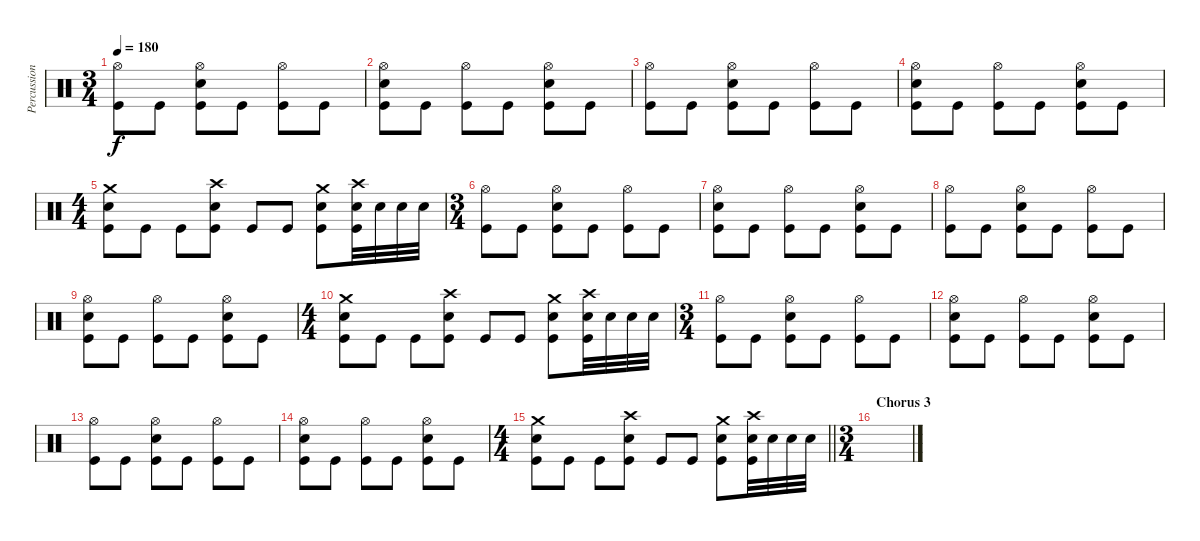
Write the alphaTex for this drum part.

\track ("Percussion" "Percussion") {instrument percussion}
\staff {score}
\articulation defaults
\ts (3 4)
\tempo 180
\clef neutral
\ks c
("Hi-Hat (open)" "Kick (hit)").8{dy f} "Kick (hit)".8 ("Hi-Hat (open)" "Electric Snare (hit)" "Kick (hit)").8 "Kick (hit)".8 ("Hi-Hat (open)" "Kick (hit)").8 "Kick (hit)".8 |
("Hi-Hat (open)" "Electric Snare (hit)" "Kick (hit)").8 "Kick (hit)".8 ("Hi-Hat (open)" "Kick (hit)").8 "Kick (hit)".8 ("Hi-Hat (open)" "Electric Snare (hit)" "Kick (hit)").8 "Kick (hit)".8 |
("Hi-Hat (open)" "Kick (hit)").8 "Kick (hit)".8 ("Hi-Hat (open)" "Electric Snare (hit)" "Kick (hit)").8 "Kick (hit)".8 ("Hi-Hat (open)" "Kick (hit)").8 "Kick (hit)".8 |
("Hi-Hat (open)" "Electric Snare (hit)" "Kick (hit)").8 "Kick (hit)".8 ("Hi-Hat (open)" "Kick (hit)").8 "Kick (hit)".8 ("Hi-Hat (open)" "Electric Snare (hit)" "Kick (hit)").8 "Kick (hit)".8 |
\ts (4 4)
("Crash medium (hit)" "Electric Snare (hit)" "Kick (hit)").8 "Kick (hit)".8 "Kick (hit)".8 ("Crash high (hit)" "Electric Snare (hit)" "Kick (hit)").8 "Kick (hit)".8 "Kick (hit)".8 ("Crash medium (hit)" "Electric Snare (hit)" "Kick (hit)").8 ("Crash high (hit)" "Electric Snare (hit)" "Kick (hit)").32 "Electric Snare (hit)".32 "Electric Snare (hit)".32 "Electric Snare (hit)".32 |
\ts (3 4)
("Hi-Hat (open)" "Kick (hit)").8 "Kick (hit)".8 ("Hi-Hat (open)" "Electric Snare (hit)" "Kick (hit)").8 "Kick (hit)".8 ("Hi-Hat (open)" "Kick (hit)").8 "Kick (hit)".8 |
("Hi-Hat (open)" "Electric Snare (hit)" "Kick (hit)").8 "Kick (hit)".8 ("Hi-Hat (open)" "Kick (hit)").8 "Kick (hit)".8 ("Hi-Hat (open)" "Electric Snare (hit)" "Kick (hit)").8 "Kick (hit)".8 |
("Hi-Hat (open)" "Kick (hit)").8 "Kick (hit)".8 ("Hi-Hat (open)" "Electric Snare (hit)" "Kick (hit)").8 "Kick (hit)".8 ("Hi-Hat (open)" "Kick (hit)").8 "Kick (hit)".8 |
("Hi-Hat (open)" "Electric Snare (hit)" "Kick (hit)").8 "Kick (hit)".8 ("Hi-Hat (open)" "Kick (hit)").8 "Kick (hit)".8 ("Hi-Hat (open)" "Electric Snare (hit)" "Kick (hit)").8 "Kick (hit)".8 |
\ts (4 4)
("Crash medium (hit)" "Electric Snare (hit)" "Kick (hit)").8 "Kick (hit)".8 "Kick (hit)".8 ("Crash high (hit)" "Electric Snare (hit)" "Kick (hit)").8 "Kick (hit)".8 "Kick (hit)".8 ("Crash medium (hit)" "Electric Snare (hit)" "Kick (hit)").8 ("Crash high (hit)" "Electric Snare (hit)" "Kick (hit)").32 "Electric Snare (hit)".32 "Electric Snare (hit)".32 "Electric Snare (hit)".32 |
\ts (3 4)
("Hi-Hat (open)" "Kick (hit)").8 "Kick (hit)".8 ("Hi-Hat (open)" "Electric Snare (hit)" "Kick (hit)").8 "Kick (hit)".8 ("Hi-Hat (open)" "Kick (hit)").8 "Kick (hit)".8 |
("Hi-Hat (open)" "Electric Snare (hit)" "Kick (hit)").8 "Kick (hit)".8 ("Hi-Hat (open)" "Kick (hit)").8 "Kick (hit)".8 ("Hi-Hat (open)" "Electric Snare (hit)" "Kick (hit)").8 "Kick (hit)".8 |
("Hi-Hat (open)" "Kick (hit)").8 "Kick (hit)".8 ("Hi-Hat (open)" "Electric Snare (hit)" "Kick (hit)").8 "Kick (hit)".8 ("Hi-Hat (open)" "Kick (hit)").8 "Kick (hit)".8 |
("Hi-Hat (open)" "Electric Snare (hit)" "Kick (hit)").8 "Kick (hit)".8 ("Hi-Hat (open)" "Kick (hit)").8 "Kick (hit)".8 ("Hi-Hat (open)" "Electric Snare (hit)" "Kick (hit)").8 "Kick (hit)".8 |
\ts (4 4)
\barLineRight lightlight
("Crash medium (hit)" "Electric Snare (hit)" "Kick (hit)").8 "Kick (hit)".8 "Kick (hit)".8 ("Crash high (hit)" "Electric Snare (hit)" "Kick (hit)").8 "Kick (hit)".8 "Kick (hit)".8 ("Crash medium (hit)" "Electric Snare (hit)" "Kick (hit)").8 ("Crash high (hit)" "Electric Snare (hit)" "Kick (hit)").32 "Electric Snare (hit)".32 "Electric Snare (hit)".32 "Electric Snare (hit)".32 |
\ts (3 4)
\section ("" "Chorus 3")
